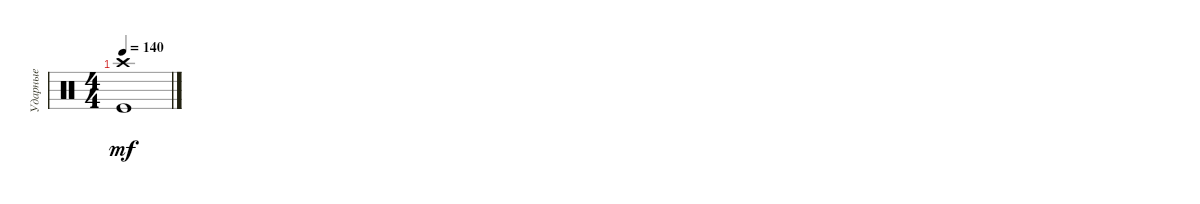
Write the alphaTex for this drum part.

\track ("Ударные" "Ударные") {instrument percussion}
\staff {score}
\articulation defaults
\ts (4 4)
\tempo 140
\clef neutral
\ks c
("Crash high (hit)" "Kick (hit)").1{dy mf}
